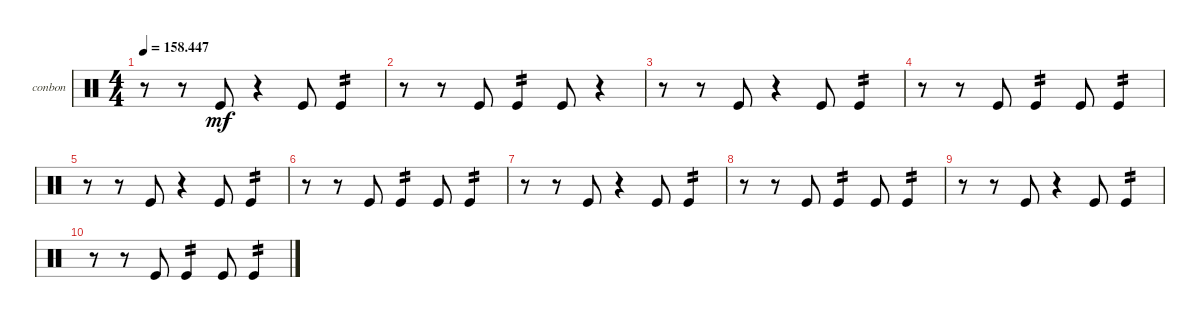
\defaultSystemsLayout 4
\bracketExtendMode groupsimilarinstruments
\firstSystemTrackNameOrientation horizontal
\otherSystemsTrackNameOrientation horizontal
\track ("Bongos N Congas" "conbon") {instrument percussion}
\staff {score}
\articulation defaults
\ts (4 4)
\tempo
158.447
\accidentals auto
\clef neutral
\ottava regular
\simile none
\ks c
r.8{dy mf} r.8 "Kick (hit)".8 r.4 "Kick (hit)".8 "Kick (hit)".4{tp 2} |
r.8 r.8 "Kick (hit)".8 "Kick (hit)".4{tp 2} "Kick (hit)".8 r.4 |
r.8 r.8 "Kick (hit)".8 r.4 "Kick (hit)".8 "Kick (hit)".4{tp 2} |
r.8 r.8 "Kick (hit)".8 "Kick (hit)".4{tp 2} "Kick (hit)".8 "Kick (hit)".4{tp 2} |
r.8 r.8 "Kick (hit)".8 r.4 "Kick (hit)".8 "Kick (hit)".4{tp 2} |
r.8 r.8 "Kick (hit)".8 "Kick (hit)".4{tp 2} "Kick (hit)".8 "Kick (hit)".4{tp 2} |
r.8 r.8 "Kick (hit)".8 r.4 "Kick (hit)".8 "Kick (hit)".4{tp 2} |
r.8 r.8 "Kick (hit)".8 "Kick (hit)".4{tp 2} "Kick (hit)".8 "Kick (hit)".4{tp 2} |
r.8 r.8 "Kick (hit)".8 r.4 "Kick (hit)".8 "Kick (hit)".4{tp 2} |
r.8 r.8 "Kick (hit)".8 "Kick (hit)".4{tp 2} "Kick (hit)".8 "Kick (hit)".4{tp 2}
